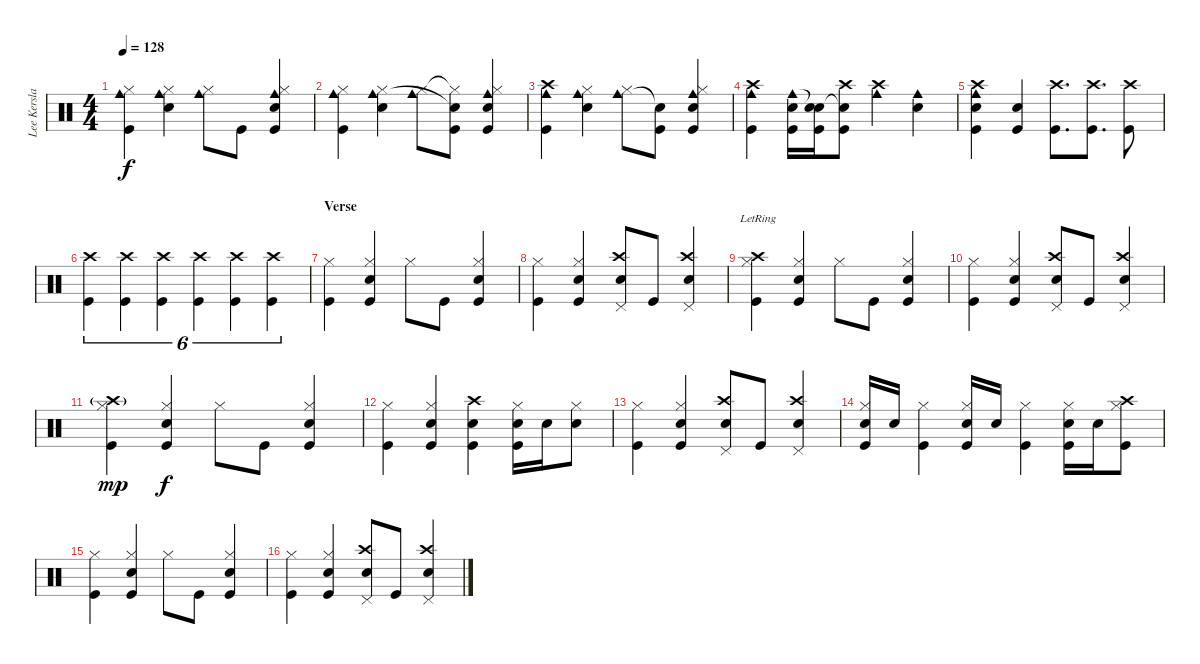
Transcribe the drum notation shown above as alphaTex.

\track ("Lee Kerslake (Drums)" "Lee Kersla") {instrument percussion}
\staff {score}
\articulation defaults
\ts (4 4)
\tempo 128
\clef neutral
\ks c
("Kick (hit)" "Hi-Hat (closed)" "Cowbell medium (hit)").4{dy f} ("Hi-Hat (closed)" "Electric Snare (hit)" "Cowbell medium (hit)").4 ("Hi-Hat (closed)" "Cowbell medium (hit)").8 "Kick (hit)".8 ("Kick (hit)" "Hi-Hat (closed)" "Electric Snare (hit)" "Cowbell medium (hit)").4 |
("Kick (hit)" "Hi-Hat (closed)" "Cowbell medium (hit)").4 ("Hi-Hat (closed)" "Electric Snare (hit)" "Cowbell medium (hit)").4 ("Hi-Hat (closed)" "Cowbell medium (hit)").8 ("Hi-Hat (closed)"{t} "Kick (hit)" "Snare (hit)"{t}).8 ("Kick (hit)" "Hi-Hat (closed)" "Electric Snare (hit)" "Cowbell medium (hit)").4 |
("Kick (hit)" "Crash high (hit)" "Cowbell medium (hit)").4 ("Hi-Hat (closed)" "Electric Snare (hit)" "Cowbell medium (hit)").4 ("Hi-Hat (closed)" "Cowbell medium (hit)").8 ("Kick (hit)" "Snare (hit)"{t}).8 ("Kick (hit)" "Electric Snare (hit)" "Hi-Hat (closed)" "Cowbell medium (hit)").4 |
("Crash high (hit)" "Kick (hit)" "Cowbell medium (hit)").4 ("Electric Snare (hit)" "Kick (hit)" "Cowbell medium (hit)").16 ("Electric Snare (hit)" "Kick (hit)" "Snare (hit)"{t}).16 ("Kick (hit)" "Crash high (hit)" "Snare (hit)"{t}).8 ("Crash high (hit)" "Cowbell medium (hit)").4 ("Electric Snare (hit)" "Cowbell medium (hit)").4 |
("Kick (hit)" "Electric Snare (hit)" "Crash high (hit)" "Cowbell medium (hit)").4 ("Electric Snare (hit)" "Kick (hit)").4 ("Kick (hit)" "Crash high (hit)").8{d} ("Kick (hit)" "Crash high (hit)").8{d} ("Kick (hit)" "Crash high (hit)").8 |
("Kick (hit)" "Crash high (hit)").4{tu (6 4)} ("Kick (hit)" "Crash high (hit)").4{tu (6 4)} ("Kick (hit)" "Crash high (hit)").4{tu (6 4)} ("Kick (hit)" "Crash high (hit)").4{tu (6 4)} ("Kick (hit)" "Crash high (hit)").4{tu (6 4)} ("Kick (hit)" "Crash high (hit)").4{tu (6 4)} |
\section ("" "Verse")
("Hi-Hat (closed)" "Kick (hit)").4 ("Hi-Hat (closed)" "Kick (hit)" "Electric Snare (hit)").4 "Hi-Hat (closed)".8 "Kick (hit)".8 ("Hi-Hat (closed)" "Electric Snare (hit)" "Kick (hit)").4 |
("Hi-Hat (closed)" "Kick (hit)").4 ("Hi-Hat (closed)" "Kick (hit)" "Electric Snare (hit)").4 ("Crash high (hit)" "Electric Snare (hit)" "Pedal Hi-Hat (hit)").8 "Kick (hit)".8 ("Crash high (hit)" "Electric Snare (hit)" "Pedal Hi-Hat (hit)").4 |
("Crash high (hit)"{lr} "Hi-Hat (closed)" "Kick (hit)").4 ("Hi-Hat (closed)" "Kick (hit)" "Electric Snare (hit)").4 "Hi-Hat (closed)".8 "Kick (hit)".8 ("Hi-Hat (closed)" "Electric Snare (hit)" "Kick (hit)").4 |
("Hi-Hat (closed)" "Kick (hit)").4 ("Hi-Hat (closed)" "Kick (hit)" "Electric Snare (hit)").4 ("Crash high (hit)" "Electric Snare (hit)" "Pedal Hi-Hat (hit)").8 "Kick (hit)".8 ("Crash high (hit)" "Electric Snare (hit)" "Pedal Hi-Hat (hit)").4 |
("Crash high (hit)"{g} "Hi-Hat (closed)" "Kick (hit)").4{dy mp} ("Hi-Hat (closed)" "Kick (hit)" "Electric Snare (hit)").4{dy f} "Hi-Hat (closed)".8 "Kick (hit)".8 ("Hi-Hat (closed)" "Electric Snare (hit)" "Kick (hit)").4 |
("Hi-Hat (closed)" "Kick (hit)").4 ("Hi-Hat (closed)" "Kick (hit)" "Electric Snare (hit)").4 ("Crash high (hit)" "Electric Snare (hit)" "Kick (hit)").4 ("Electric Snare (hit)" "Hi-Hat (closed)" "Kick (hit)").16 "Electric Snare (hit)".16 ("Electric Snare (hit)" "Hi-Hat (closed)").8 |
("Hi-Hat (closed)" "Kick (hit)").4 ("Hi-Hat (closed)" "Kick (hit)" "Electric Snare (hit)").4 ("Crash high (hit)" "Electric Snare (hit)" "Pedal Hi-Hat (hit)").8 "Kick (hit)".8 ("Crash high (hit)" "Electric Snare (hit)" "Pedal Hi-Hat (hit)").4 |
("Electric Snare (hit)" "Kick (hit)" "Hi-Hat (closed)").16 "Electric Snare (hit)".16 ("Kick (hit)" "Hi-Hat (closed)").4 ("Electric Snare (hit)" "Kick (hit)" "Hi-Hat (closed)").16 "Electric Snare (hit)".16 ("Kick (hit)" "Hi-Hat (closed)").4 ("Electric Snare (hit)" "Kick (hit)" "Hi-Hat (closed)").16 "Electric Snare (hit)".16 ("Hi-Hat (closed)" "Kick (hit)" "Crash high (hit)").8 |
("Hi-Hat (closed)" "Kick (hit)").4 ("Hi-Hat (closed)" "Kick (hit)" "Electric Snare (hit)").4 "Hi-Hat (closed)".8 "Kick (hit)".8 ("Hi-Hat (closed)" "Electric Snare (hit)" "Kick (hit)").4 |
("Hi-Hat (closed)" "Kick (hit)").4 ("Hi-Hat (closed)" "Kick (hit)" "Electric Snare (hit)").4 ("Crash high (hit)" "Electric Snare (hit)" "Pedal Hi-Hat (hit)").8 "Kick (hit)".8 ("Crash high (hit)" "Electric Snare (hit)" "Pedal Hi-Hat (hit)").4
